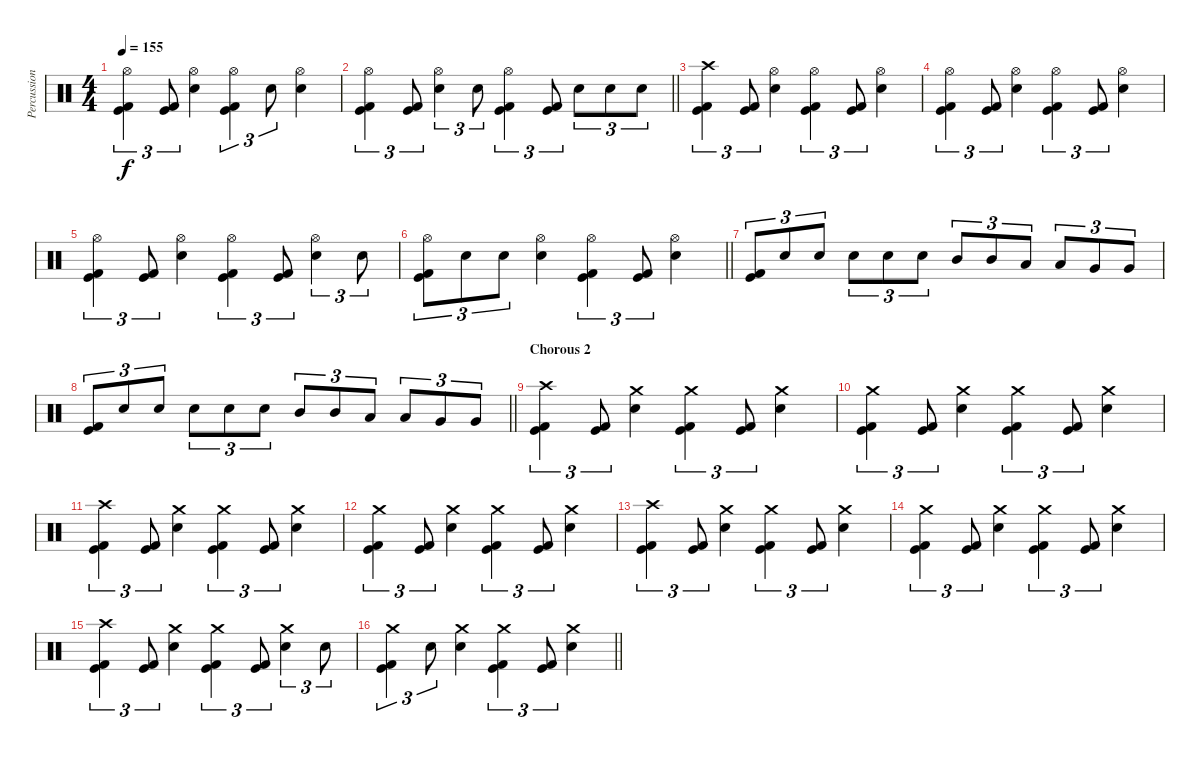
\track ("Percussion" "Percussion") {instrument percussion}
\staff {score}
\articulation defaults
\ts (4 4)
\tempo 155
\clef neutral
\ks c
("Hi-Hat (open)" "Kick (hit)" "Kick (hit) 2").4{tu (3 2) dy f} ("Kick (hit)" "Kick (hit) 2").8{tu (3 2)} ("Hi-Hat (open)" "Electric Snare (hit)").4 ("Hi-Hat (open)" "Kick (hit)" "Kick (hit) 2").4{tu (3 2)} "Electric Snare (hit)".8{tu (3 2)} ("Hi-Hat (open)" "Electric Snare (hit)").4 |
\barLineRight lightlight
("Hi-Hat (open)" "Kick (hit)" "Kick (hit) 2").4{tu (3 2)} ("Kick (hit)" "Kick (hit) 2").8{tu (3 2)} ("Hi-Hat (open)" "Electric Snare (hit)").4{tu (3 2)} "Electric Snare (hit)".8{tu (3 2)} ("Hi-Hat (open)" "Kick (hit)" "Kick (hit) 2").4{tu (3 2)} ("Kick (hit)" "Kick (hit) 2").8{tu (3 2)} "Electric Snare (hit)".8{tu (3 2)} "Electric Snare (hit)".8{tu (3 2)} "Electric Snare (hit)".8{tu (3 2)} |
\section ("" "")
("Crash high (hit)" "Kick (hit)" "Kick (hit) 2").4{tu (3 2)} ("Kick (hit)" "Kick (hit) 2").8{tu (3 2)} ("Hi-Hat (open)" "Electric Snare (hit)").4 ("Hi-Hat (open)" "Kick (hit)" "Kick (hit) 2").4{tu (3 2)} ("Kick (hit)" "Kick (hit) 2").8{tu (3 2)} ("Hi-Hat (open)" "Electric Snare (hit)").4 |
("Hi-Hat (open)" "Kick (hit)" "Kick (hit) 2").4{tu (3 2)} ("Kick (hit)" "Kick (hit) 2").8{tu (3 2)} ("Hi-Hat (open)" "Electric Snare (hit)").4 ("Hi-Hat (open)" "Kick (hit)" "Kick (hit) 2").4{tu (3 2)} ("Kick (hit)" "Kick (hit) 2").8{tu (3 2)} ("Hi-Hat (open)" "Electric Snare (hit)").4 |
("Hi-Hat (open)" "Kick (hit)" "Kick (hit) 2").4{tu (3 2)} ("Kick (hit)" "Kick (hit) 2").8{tu (3 2)} ("Hi-Hat (open)" "Electric Snare (hit)").4 ("Hi-Hat (open)" "Kick (hit)" "Kick (hit) 2").4{tu (3 2)} ("Kick (hit)" "Kick (hit) 2").8{tu (3 2)} ("Hi-Hat (open)" "Electric Snare (hit)").4{tu (3 2)} "Electric Snare (hit)".8{tu (3 2)} |
\barLineRight lightlight
("Hi-Hat (open)" "Kick (hit)" "Kick (hit) 2").8{tu (3 2)} "Electric Snare (hit)".8{tu (3 2)} "Electric Snare (hit)".8{tu (3 2)} ("Hi-Hat (open)" "Electric Snare (hit)").4 ("Hi-Hat (open)" "Kick (hit)" "Kick (hit) 2").4{tu (3 2)} ("Kick (hit)" "Kick (hit) 2").8{tu (3 2)} ("Hi-Hat (open)" "Electric Snare (hit)").4 |
\section ("" "")
("Kick (hit)" "Kick (hit) 2").8{tu (3 2)} "Electric Snare (hit)".8{tu (3 2)} "Electric Snare (hit)".8{tu (3 2)} "Electric Snare (hit)".8{tu (3 2)} "Electric Snare (hit)".8{tu (3 2)} "Electric Snare (hit)".8{tu (3 2)} "Mid Tom (hit)".8{tu (3 2)} "Mid Tom (hit)".8{tu (3 2)} "Low Tom (hit)".8{tu (3 2)} "Low Tom (hit)".8{tu (3 2)} "Very Low Tom (hit)".8{tu (3 2)} "Very Low Tom (hit)".8{tu (3 2)} |
\barLineRight lightlight
("Kick (hit)" "Kick (hit) 2").8{tu (3 2)} "Electric Snare (hit)".8{tu (3 2)} "Electric Snare (hit)".8{tu (3 2)} "Electric Snare (hit)".8{tu (3 2)} "Electric Snare (hit)".8{tu (3 2)} "Electric Snare (hit)".8{tu (3 2)} "Mid Tom (hit)".8{tu (3 2)} "Mid Tom (hit)".8{tu (3 2)} "Low Tom (hit)".8{tu (3 2)} "Low Tom (hit)".8{tu (3 2)} "Very Low Tom (hit)".8{tu (3 2)} "Very Low Tom (hit)".8{tu (3 2)} |
\section ("" "Chorous 2")
("Crash high (hit)" "Kick (hit)" "Kick (hit) 2").4{tu (3 2)} ("Kick (hit)" "Kick (hit) 2").8{tu (3 2)} ("Crash medium (hit)" "Electric Snare (hit)").4 ("Crash medium (hit)" "Kick (hit)" "Kick (hit) 2").4{tu (3 2)} ("Kick (hit)" "Kick (hit) 2").8{tu (3 2)} ("Crash medium (hit)" "Electric Snare (hit)").4 |
("Crash medium (hit)" "Kick (hit)" "Kick (hit) 2").4{tu (3 2)} ("Kick (hit)" "Kick (hit) 2").8{tu (3 2)} ("Crash medium (hit)" "Electric Snare (hit)").4 ("Crash medium (hit)" "Kick (hit)" "Kick (hit) 2").4{tu (3 2)} ("Kick (hit)" "Kick (hit) 2").8{tu (3 2)} ("Crash medium (hit)" "Electric Snare (hit)").4 |
("Crash high (hit)" "Kick (hit)" "Kick (hit) 2").4{tu (3 2)} ("Kick (hit)" "Kick (hit) 2").8{tu (3 2)} ("Crash medium (hit)" "Electric Snare (hit)").4 ("Crash medium (hit)" "Kick (hit)" "Kick (hit) 2").4{tu (3 2)} ("Kick (hit)" "Kick (hit) 2").8{tu (3 2)} ("Crash medium (hit)" "Electric Snare (hit)").4 |
("Crash medium (hit)" "Kick (hit)" "Kick (hit) 2").4{tu (3 2)} ("Kick (hit)" "Kick (hit) 2").8{tu (3 2)} ("Crash medium (hit)" "Electric Snare (hit)").4 ("Crash medium (hit)" "Kick (hit)" "Kick (hit) 2").4{tu (3 2)} ("Kick (hit)" "Kick (hit) 2").8{tu (3 2)} ("Crash medium (hit)" "Electric Snare (hit)").4 |
("Crash high (hit)" "Kick (hit)" "Kick (hit) 2").4{tu (3 2)} ("Kick (hit)" "Kick (hit) 2").8{tu (3 2)} ("Crash medium (hit)" "Electric Snare (hit)").4 ("Crash medium (hit)" "Kick (hit)" "Kick (hit) 2").4{tu (3 2)} ("Kick (hit)" "Kick (hit) 2").8{tu (3 2)} ("Crash medium (hit)" "Electric Snare (hit)").4 |
("Crash medium (hit)" "Kick (hit)" "Kick (hit) 2").4{tu (3 2)} ("Kick (hit)" "Kick (hit) 2").8{tu (3 2)} ("Crash medium (hit)" "Electric Snare (hit)").4 ("Crash medium (hit)" "Kick (hit)" "Kick (hit) 2").4{tu (3 2)} ("Kick (hit)" "Kick (hit) 2").8{tu (3 2)} ("Crash medium (hit)" "Electric Snare (hit)").4 |
("Crash high (hit)" "Kick (hit)" "Kick (hit) 2").4{tu (3 2)} ("Kick (hit)" "Kick (hit) 2").8{tu (3 2)} ("Crash medium (hit)" "Electric Snare (hit)").4 ("Crash medium (hit)" "Kick (hit)" "Kick (hit) 2").4{tu (3 2)} ("Kick (hit)" "Kick (hit) 2").8{tu (3 2)} ("Crash medium (hit)" "Electric Snare (hit)").4{tu (3 2)} "Electric Snare (hit)".8{tu (3 2)} |
\barLineRight lightlight
("Crash medium (hit)" "Kick (hit)" "Kick (hit) 2").4{tu (3 2)} "Electric Snare (hit)".8{tu (3 2)} ("Crash medium (hit)" "Electric Snare (hit)").4 ("Crash medium (hit)" "Kick (hit)" "Kick (hit) 2").4{tu (3 2)} ("Kick (hit)" "Kick (hit) 2").8{tu (3 2)} ("Crash medium (hit)" "Electric Snare (hit)").4
